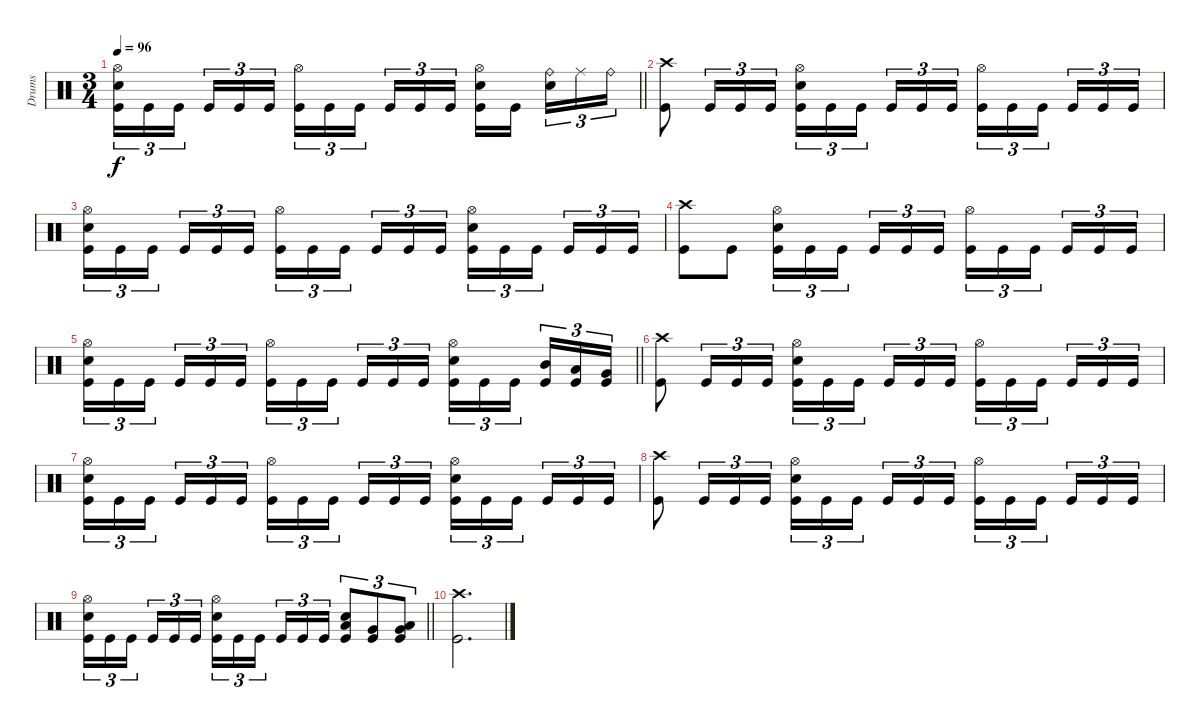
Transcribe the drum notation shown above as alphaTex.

\track ("Drums" "Drums") {instrument percussion}
\staff
\articulation defaults
\ts (3 4)
\tempo 96
\clef neutral
\barLineRight lightlight
\ks c
("Hi-Hat (open)" "Electric Snare (hit)" "Kick (hit)").16{tu (3 2) dy f} "Kick (hit)".16{tu (3 2)} "Kick (hit)".16{tu (3 2) beam splitsecondary} "Kick (hit)".16{tu (3 2)} "Kick (hit)".16{tu (3 2)} "Kick (hit)".16{tu (3 2)} ("Hi-Hat (open)" "Kick (hit)").16{tu (3 2)} "Kick (hit)".16{tu (3 2)} "Kick (hit)".16{tu (3 2) beam splitsecondary} "Kick (hit)".16{tu (3 2)} "Kick (hit)".16{tu (3 2)} "Kick (hit)".16{tu (3 2)} ("Hi-Hat (open)" "Electric Snare (hit)" "Kick (hit)").16 "Kick (hit)".16{beam splitsecondary} ("Ride (bell)" "Electric Snare (hit)").16{tu (3 2)} "Ride (middle)".16{tu (3 2)} "Ride (bell)".16{tu (3 2)} |
("Crash high (hit)" "Kick (hit)").8 "Kick (hit)".16{tu (3 2)} "Kick (hit)".16{tu (3 2)} "Kick (hit)".16{tu (3 2)} ("Hi-Hat (open)" "Electric Snare (hit)" "Kick (hit)").16{tu (3 2)} "Kick (hit)".16{tu (3 2)} "Kick (hit)".16{tu (3 2) beam splitsecondary} "Kick (hit)".16{tu (3 2)} "Kick (hit)".16{tu (3 2)} "Kick (hit)".16{tu (3 2)} ("Hi-Hat (open)" "Kick (hit)").16{tu (3 2)} "Kick (hit)".16{tu (3 2)} "Kick (hit)".16{tu (3 2) beam splitsecondary} "Kick (hit)".16{tu (3 2)} "Kick (hit)".16{tu (3 2)} "Kick (hit)".16{tu (3 2)} |
("Hi-Hat (open)" "Electric Snare (hit)" "Kick (hit)").16{tu (3 2)} "Kick (hit)".16{tu (3 2)} "Kick (hit)".16{tu (3 2) beam splitsecondary} "Kick (hit)".16{tu (3 2)} "Kick (hit)".16{tu (3 2)} "Kick (hit)".16{tu (3 2)} ("Hi-Hat (open)" "Kick (hit)").16{tu (3 2)} "Kick (hit)".16{tu (3 2)} "Kick (hit)".16{tu (3 2) beam splitsecondary} "Kick (hit)".16{tu (3 2)} "Kick (hit)".16{tu (3 2)} "Kick (hit)".16{tu (3 2)} ("Hi-Hat (open)" "Electric Snare (hit)" "Kick (hit)").16{tu (3 2)} "Kick (hit)".16{tu (3 2)} "Kick (hit)".16{tu (3 2) beam splitsecondary} "Kick (hit)".16{tu (3 2)} "Kick (hit)".16{tu (3 2)} "Kick (hit)".16{tu (3 2)} |
("Crash high (hit)" "Kick (hit)").8 "Kick (hit)".8 ("Hi-Hat (open)" "Electric Snare (hit)" "Kick (hit)").16{tu (3 2)} "Kick (hit)".16{tu (3 2)} "Kick (hit)".16{tu (3 2) beam splitsecondary} "Kick (hit)".16{tu (3 2)} "Kick (hit)".16{tu (3 2)} "Kick (hit)".16{tu (3 2)} ("Hi-Hat (open)" "Kick (hit)").16{tu (3 2)} "Kick (hit)".16{tu (3 2)} "Kick (hit)".16{tu (3 2) beam splitsecondary} "Kick (hit)".16{tu (3 2)} "Kick (hit)".16{tu (3 2)} "Kick (hit)".16{tu (3 2)} |
\barLineRight lightlight
("Hi-Hat (open)" "Electric Snare (hit)" "Kick (hit)").16{tu (3 2)} "Kick (hit)".16{tu (3 2)} "Kick (hit)".16{tu (3 2) beam splitsecondary} "Kick (hit)".16{tu (3 2)} "Kick (hit)".16{tu (3 2)} "Kick (hit)".16{tu (3 2)} ("Hi-Hat (open)" "Kick (hit)").16{tu (3 2)} "Kick (hit)".16{tu (3 2)} "Kick (hit)".16{tu (3 2) beam splitsecondary} "Kick (hit)".16{tu (3 2)} "Kick (hit)".16{tu (3 2)} "Kick (hit)".16{tu (3 2)} ("Hi-Hat (open)" "Electric Snare (hit)" "Kick (hit)").16{tu (3 2)} "Kick (hit)".16{tu (3 2)} "Kick (hit)".16{tu (3 2) beam splitsecondary} ("Mid Tom (hit)" "Kick (hit)").16{tu (3 2)} ("Low Tom (hit)" "Kick (hit)").16{tu (3 2)} ("Very Low Tom (hit)" "Kick (hit)").16{tu (3 2)} |
("Crash high (hit)" "Kick (hit)").8 "Kick (hit)".16{tu (3 2)} "Kick (hit)".16{tu (3 2)} "Kick (hit)".16{tu (3 2)} ("Hi-Hat (open)" "Electric Snare (hit)" "Kick (hit)").16{tu (3 2)} "Kick (hit)".16{tu (3 2)} "Kick (hit)".16{tu (3 2) beam splitsecondary} "Kick (hit)".16{tu (3 2)} "Kick (hit)".16{tu (3 2)} "Kick (hit)".16{tu (3 2)} ("Hi-Hat (open)" "Kick (hit)").16{tu (3 2)} "Kick (hit)".16{tu (3 2)} "Kick (hit)".16{tu (3 2) beam splitsecondary} "Kick (hit)".16{tu (3 2)} "Kick (hit)".16{tu (3 2)} "Kick (hit)".16{tu (3 2)} |
("Hi-Hat (open)" "Electric Snare (hit)" "Kick (hit)").16{tu (3 2)} "Kick (hit)".16{tu (3 2)} "Kick (hit)".16{tu (3 2) beam splitsecondary} "Kick (hit)".16{tu (3 2)} "Kick (hit)".16{tu (3 2)} "Kick (hit)".16{tu (3 2)} ("Hi-Hat (open)" "Kick (hit)").16{tu (3 2)} "Kick (hit)".16{tu (3 2)} "Kick (hit)".16{tu (3 2) beam splitsecondary} "Kick (hit)".16{tu (3 2)} "Kick (hit)".16{tu (3 2)} "Kick (hit)".16{tu (3 2)} ("Hi-Hat (open)" "Electric Snare (hit)" "Kick (hit)").16{tu (3 2)} "Kick (hit)".16{tu (3 2)} "Kick (hit)".16{tu (3 2) beam splitsecondary} "Kick (hit)".16{tu (3 2)} "Kick (hit)".16{tu (3 2)} "Kick (hit)".16{tu (3 2)} |
("Crash high (hit)" "Kick (hit)").8 "Kick (hit)".16{tu (3 2)} "Kick (hit)".16{tu (3 2)} "Kick (hit)".16{tu (3 2)} ("Hi-Hat (open)" "Electric Snare (hit)" "Kick (hit)").16{tu (3 2)} "Kick (hit)".16{tu (3 2)} "Kick (hit)".16{tu (3 2) beam splitsecondary} "Kick (hit)".16{tu (3 2)} "Kick (hit)".16{tu (3 2)} "Kick (hit)".16{tu (3 2)} ("Hi-Hat (open)" "Kick (hit)").16{tu (3 2)} "Kick (hit)".16{tu (3 2)} "Kick (hit)".16{tu (3 2) beam splitsecondary} "Kick (hit)".16{tu (3 2)} "Kick (hit)".16{tu (3 2)} "Kick (hit)".16{tu (3 2)} |
\barLineRight lightlight
("Hi-Hat (open)" "Electric Snare (hit)" "Kick (hit)").16{tu (3 2)} "Kick (hit)".16{tu (3 2)} "Kick (hit)".16{tu (3 2) beam splitsecondary} "Kick (hit)".16{tu (3 2)} "Kick (hit)".16{tu (3 2)} "Kick (hit)".16{tu (3 2)} ("Hi-Hat (open)" "Electric Snare (hit)" "Kick (hit)").16{tu (3 2)} "Kick (hit)".16{tu (3 2)} "Kick (hit)".16{tu (3 2) beam splitsecondary} "Kick (hit)".16{tu (3 2)} "Kick (hit)".16{tu (3 2)} "Kick (hit)".16{tu (3 2)} ("Low Tom (hit)" "Electric Snare (hit)" "Kick (hit)").8{tu (3 2)} ("Very Low Tom (hit)" "Kick (hit)").8{tu (3 2)} ("Very Low Tom (hit)" "Low Floor Tom (hit)" "Kick (hit)").8{tu (3 2)} |
("Crash high (hit)" "Kick (hit)").2{d}
